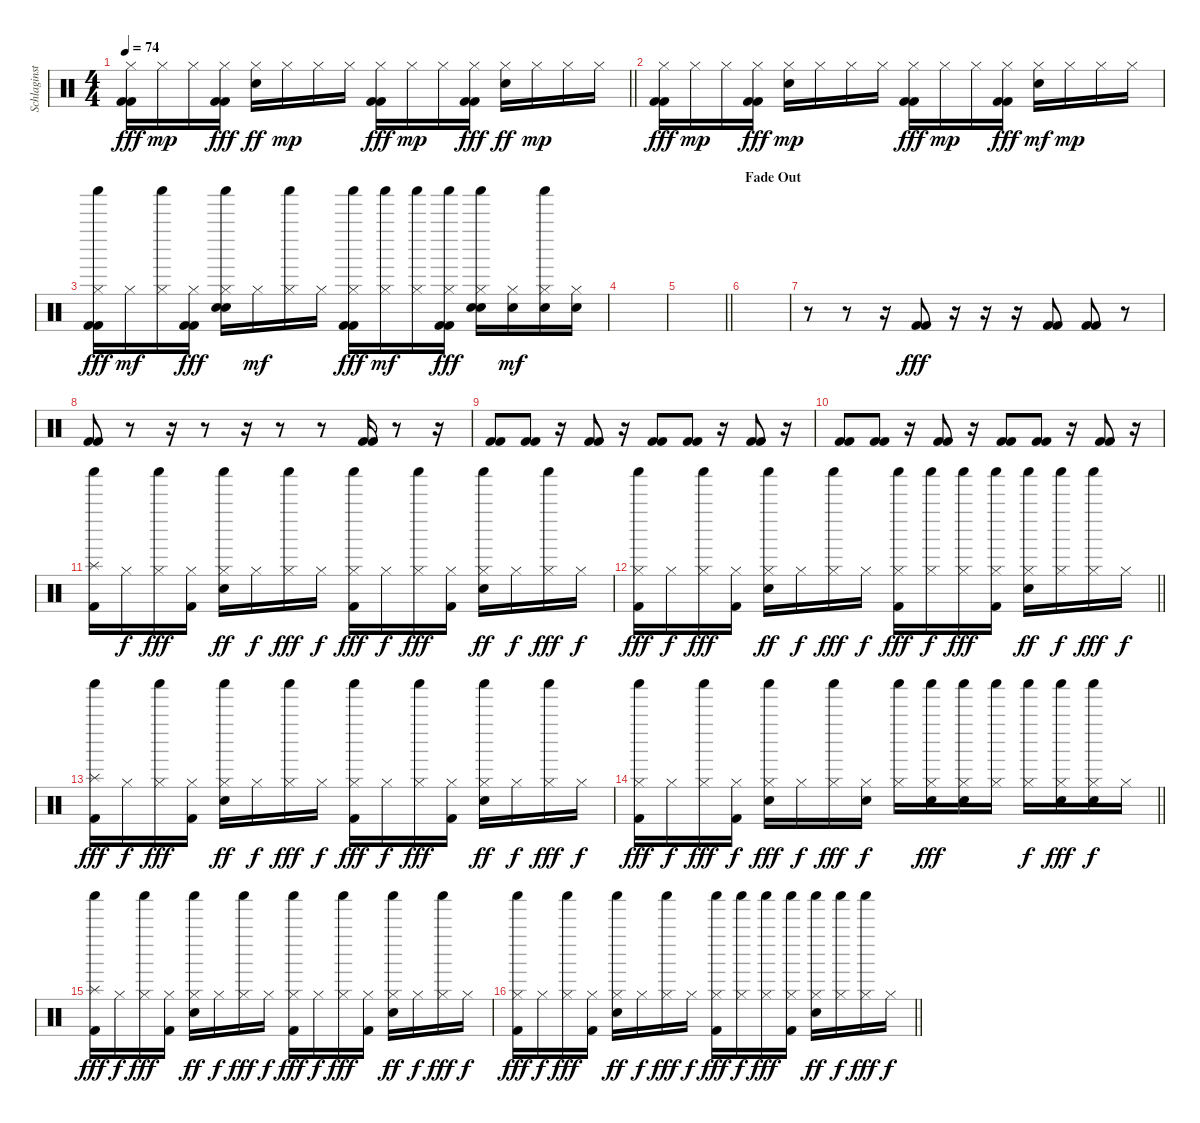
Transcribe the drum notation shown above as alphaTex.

\track ("Schlaginstrumente - Auswahl" "Schlaginst") {instrument percussion}
\staff {score}
\articulation defaults
\ts (4 4)
\tempo 74
\clef neutral
\barLineRight lightlight
\ks c
("Hi-Hat (closed)" "Kick (hit) 2" "Kick (hit) 2").16{dy fff} "Hi-Hat (closed)".16{dy mp} "Hi-Hat (closed)".16 ("Hi-Hat (closed)" "Kick (hit) 2" "Kick (hit) 2").16{dy fff} ("Hi-Hat (closed)" "Electric Snare (hit)").16{dy ff} "Hi-Hat (closed)".16{dy mp} "Hi-Hat (closed)".16 "Hi-Hat (closed)".16 ("Hi-Hat (closed)" "Kick (hit) 2" "Kick (hit) 2").16{dy fff} "Hi-Hat (closed)".16{dy mp} "Hi-Hat (closed)".16 ("Hi-Hat (closed)" "Kick (hit) 2" "Kick (hit) 2").16{dy fff} ("Hi-Hat (closed)" "Electric Snare (hit)").16{dy ff} "Hi-Hat (closed)".16{dy mp} "Hi-Hat (closed)".16 "Hi-Hat (closed)".16 |
("Hi-Hat (closed)" "Kick (hit) 2" "Kick (hit) 2").16{dy fff} "Hi-Hat (closed)".16{dy mp} "Hi-Hat (closed)".16 ("Hi-Hat (closed)" "Kick (hit) 2" "Kick (hit) 2").16{dy fff} ("Hi-Hat (closed)" "Electric Snare (hit)").16{dy mp} "Hi-Hat (closed)".16 "Hi-Hat (closed)".16 "Hi-Hat (closed)".16 ("Hi-Hat (closed)" "Kick (hit) 2" "Kick (hit) 2").16{dy fff} "Hi-Hat (closed)".16{dy mp} "Hi-Hat (closed)".16 ("Hi-Hat (closed)" "Kick (hit) 2" "Kick (hit) 2").16{dy fff} ("Hi-Hat (closed)" "Electric Snare (hit)").16{dy mf} "Hi-Hat (closed)".16{dy mp} "Hi-Hat (closed)".16 "Hi-Hat (closed)".16 |
("Shaker (hit)" "Hi-Hat (closed)" "Kick (hit) 2" "Kick (hit) 2").16{dy fff} "Hi-Hat (closed)".16{dy mf} ("Shaker (hit)" "Hi-Hat (closed)").16 ("Hi-Hat (closed)" "Kick (hit) 2" "Kick (hit) 2").16{dy fff} ("Shaker (hit)" "Hi-Hat (closed)" "Electric Snare (hit)" "Hand Clap (hit)").16 "Hi-Hat (closed)".16{dy mf} ("Shaker (hit)" "Hi-Hat (closed)").16 "Hi-Hat (closed)".16 ("Shaker (hit)" "Hi-Hat (closed)" "Kick (hit) 2" "Kick (hit) 2").16{dy fff} ("Shaker (hit)" "Hi-Hat (closed)").16{dy mf} ("Shaker (hit)" "Hi-Hat (closed)").16 ("Shaker (hit)" "Hi-Hat (closed)" "Kick (hit) 2" "Kick (hit) 2").16{dy fff} ("Shaker (hit)" "Hi-Hat (closed)" "Electric Snare (hit)" "Hand Clap (hit)").16 ("Hi-Hat (closed)" "Electric Snare (hit)").16{dy mf} ("Shaker (hit)" "Hi-Hat (closed)" "Electric Snare (hit)").16 ("Hi-Hat (closed)" "Electric Snare (hit)").16 |
|
\barLineRight lightlight
|
\section ("" "Fade Out")
|
r.8 r.8 r.16 ("Kick (hit) 2" "Kick (hit) 2").8{dy fff} r.16 r.16 r.16 ("Kick (hit) 2" "Kick (hit) 2").8 ("Kick (hit) 2" "Kick (hit) 2").8 r.8 |
("Kick (hit) 2" "Kick (hit) 2").8 r.8 r.16 r.8 r.16 r.8 r.8 ("Kick (hit) 2" "Kick (hit) 2").16 r.8 r.16 |
("Kick (hit) 2" "Kick (hit) 2").8 ("Kick (hit) 2" "Kick (hit) 2").8 r.16 ("Kick (hit) 2" "Kick (hit) 2").8 r.16 ("Kick (hit) 2" "Kick (hit) 2").8 ("Kick (hit) 2" "Kick (hit) 2").8 r.16 ("Kick (hit) 2" "Kick (hit) 2").8 r.16 |
("Kick (hit) 2" "Kick (hit) 2").8 ("Kick (hit) 2" "Kick (hit) 2").8 r.16 ("Kick (hit) 2" "Kick (hit) 2").8 r.16 ("Kick (hit) 2" "Kick (hit) 2").8 ("Kick (hit) 2" "Kick (hit) 2").8 r.16 ("Kick (hit) 2" "Kick (hit) 2").8 r.16 |
("Shaker (hit)" "Splash (hit)" "Kick (hit) 2").16 "Hi-Hat (closed)".16{dy f} ("Shaker (hit)" "Hi-Hat (closed)").16{dy fff} ("Hi-Hat (closed)" "Kick (hit) 2").16 ("Shaker (hit)" "Hi-Hat (closed)" "Electric Snare (hit)").16{dy ff} "Hi-Hat (closed)".16{dy f} ("Shaker (hit)" "Hi-Hat (closed)").16{dy fff} "Hi-Hat (closed)".16{dy f} ("Shaker (hit)" "Hi-Hat (closed)" "Kick (hit) 2").16{dy fff} "Hi-Hat (closed)".16{dy f} ("Shaker (hit)" "Hi-Hat (closed)").16{dy fff} ("Hi-Hat (closed)" "Kick (hit) 2").16 ("Shaker (hit)" "Hi-Hat (closed)" "Electric Snare (hit)").16{dy ff} "Hi-Hat (closed)".16{dy f} ("Shaker (hit)" "Hi-Hat (closed)").16{dy fff} "Hi-Hat (closed)".16{dy f} |
\barLineRight lightlight
("Shaker (hit)" "Hi-Hat (closed)" "Kick (hit) 2").16{dy fff} "Hi-Hat (closed)".16{dy f} ("Shaker (hit)" "Hi-Hat (closed)").16{dy fff} ("Hi-Hat (closed)" "Kick (hit) 2").16 ("Shaker (hit)" "Hi-Hat (closed)" "Electric Snare (hit)").16{dy ff} "Hi-Hat (closed)".16{dy f} ("Shaker (hit)" "Hi-Hat (closed)").16{dy fff} "Hi-Hat (closed)".16{dy f} ("Shaker (hit)" "Hi-Hat (closed)" "Kick (hit) 2").16{dy fff} ("Shaker (hit)" "Hi-Hat (closed)").16{dy f} ("Shaker (hit)" "Hi-Hat (closed)").16{dy fff} ("Shaker (hit)" "Hi-Hat (closed)" "Kick (hit) 2").16 ("Shaker (hit)" "Hi-Hat (closed)" "Electric Snare (hit)").16{dy ff} ("Shaker (hit)" "Hi-Hat (closed)").16{dy f} ("Shaker (hit)" "Hi-Hat (closed)").16{dy fff} "Hi-Hat (closed)".16{dy f} |
("Shaker (hit)" "Splash (hit)" "Kick (hit) 2").16{dy fff} "Hi-Hat (closed)".16{dy f} ("Shaker (hit)" "Hi-Hat (closed)").16{dy fff} ("Hi-Hat (closed)" "Kick (hit) 2").16 ("Shaker (hit)" "Hi-Hat (closed)" "Electric Snare (hit)").16{dy ff} "Hi-Hat (closed)".16{dy f} ("Shaker (hit)" "Hi-Hat (closed)").16{dy fff} "Hi-Hat (closed)".16{dy f} ("Shaker (hit)" "Hi-Hat (closed)" "Kick (hit) 2").16{dy fff} "Hi-Hat (closed)".16{dy f} ("Shaker (hit)" "Hi-Hat (closed)").16{dy fff} ("Hi-Hat (closed)" "Kick (hit) 2").16 ("Shaker (hit)" "Hi-Hat (closed)" "Electric Snare (hit)").16{dy ff} "Hi-Hat (closed)".16{dy f} ("Shaker (hit)" "Hi-Hat (closed)").16{dy fff} "Hi-Hat (closed)".16{dy f} |
\barLineRight lightlight
("Shaker (hit)" "Hi-Hat (closed)" "Kick (hit) 2").16{dy fff} "Hi-Hat (closed)".16{dy f} ("Shaker (hit)" "Hi-Hat (closed)").16{dy fff} ("Hi-Hat (closed)" "Kick (hit) 2").16{dy f} ("Shaker (hit)" "Hi-Hat (closed)" "Electric Snare (hit)").16{dy fff} "Hi-Hat (closed)".16{dy f} ("Shaker (hit)" "Hi-Hat (closed)").16{dy fff} ("Hi-Hat (closed)" "Electric Snare (hit)").16{dy f} ("Shaker (hit)" "Hi-Hat (closed)").16 ("Shaker (hit)" "Hi-Hat (closed)" "Electric Snare (hit)").16{dy fff} ("Shaker (hit)" "Hi-Hat (closed)" "Electric Snare (hit)").16 ("Shaker (hit)" "Hi-Hat (closed)").16 ("Shaker (hit)" "Hi-Hat (closed)").16{dy f} ("Shaker (hit)" "Hi-Hat (closed)" "Electric Snare (hit)").16{dy fff} ("Shaker (hit)" "Hi-Hat (closed)" "Electric Snare (hit)").16{dy f} "Hi-Hat (closed)".16 |
("Shaker (hit)" "Splash (hit)" "Kick (hit) 2").16{dy fff} "Hi-Hat (closed)".16{dy f} ("Shaker (hit)" "Hi-Hat (closed)").16{dy fff} ("Hi-Hat (closed)" "Kick (hit) 2").16 ("Shaker (hit)" "Hi-Hat (closed)" "Electric Snare (hit)").16{dy ff} "Hi-Hat (closed)".16{dy f} ("Shaker (hit)" "Hi-Hat (closed)").16{dy fff} "Hi-Hat (closed)".16{dy f} ("Shaker (hit)" "Hi-Hat (closed)" "Kick (hit) 2").16{dy fff} "Hi-Hat (closed)".16{dy f} ("Shaker (hit)" "Hi-Hat (closed)").16{dy fff} ("Hi-Hat (closed)" "Kick (hit) 2").16 ("Shaker (hit)" "Hi-Hat (closed)" "Electric Snare (hit)").16{dy ff} "Hi-Hat (closed)".16{dy f} ("Shaker (hit)" "Hi-Hat (closed)").16{dy fff} "Hi-Hat (closed)".16{dy f} |
\barLineRight lightlight
("Shaker (hit)" "Hi-Hat (closed)" "Kick (hit) 2").16{dy fff} "Hi-Hat (closed)".16{dy f} ("Shaker (hit)" "Hi-Hat (closed)").16{dy fff} ("Hi-Hat (closed)" "Kick (hit) 2").16 ("Shaker (hit)" "Hi-Hat (closed)" "Electric Snare (hit)").16{dy ff} "Hi-Hat (closed)".16{dy f} ("Shaker (hit)" "Hi-Hat (closed)").16{dy fff} "Hi-Hat (closed)".16{dy f} ("Shaker (hit)" "Hi-Hat (closed)" "Kick (hit) 2").16{dy fff} ("Shaker (hit)" "Hi-Hat (closed)").16{dy f} ("Shaker (hit)" "Hi-Hat (closed)").16{dy fff} ("Shaker (hit)" "Hi-Hat (closed)" "Kick (hit) 2").16 ("Shaker (hit)" "Hi-Hat (closed)" "Electric Snare (hit)").16{dy ff} ("Shaker (hit)" "Hi-Hat (closed)").16{dy f} ("Shaker (hit)" "Hi-Hat (closed)").16{dy fff} "Hi-Hat (closed)".16{dy f}
